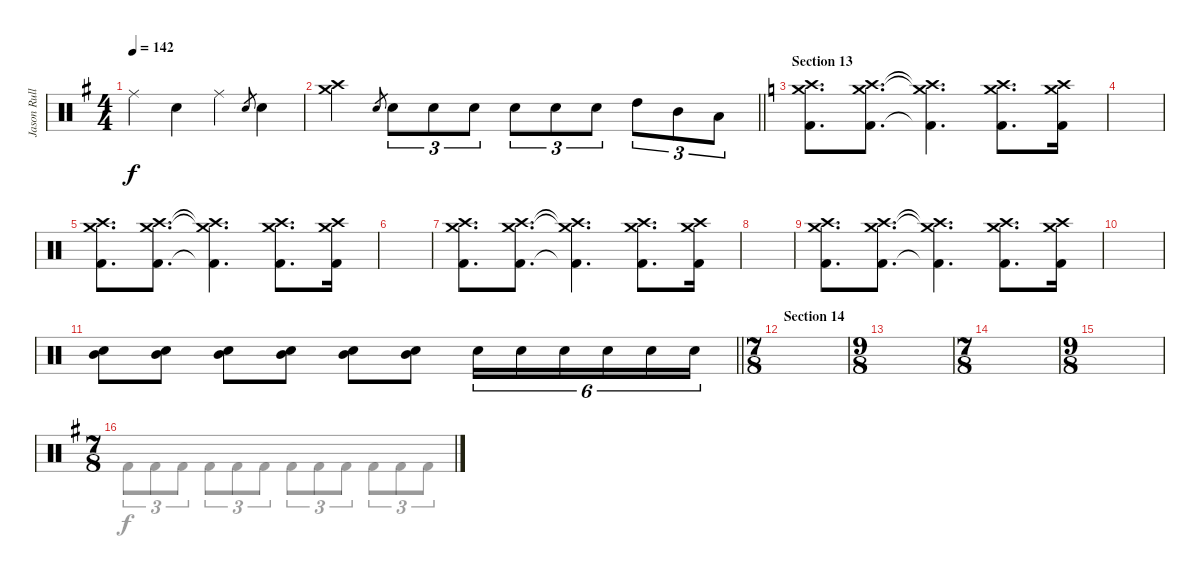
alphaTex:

\track ("Jason Rullo (drums)" "Jason Rull") {instrument percussion}
\staff {score}
\articulation defaults
\voice
\ts (4 4)
\tempo 142
\clef neutral
\ks eminor "Ride (middle)".4{dy f} "Electric Snare (hit)".4 "Ride (middle)".4 "Electric Snare (hit)".8{gr} "Electric Snare (hit)".4
|
\barLineRight lightlight
("Crash medium (hit)" "Crash high (hit)").4 "Electric Snare (hit)".8{gr} "Electric Snare (hit)".8{tu (3 2)} "Electric Snare (hit)".8{tu (3 2)} "Electric Snare (hit)".8{tu (3 2)} "Electric Snare (hit)".8{tu (3 2)} "Electric Snare (hit)".8{tu (3 2)} "Electric Snare (hit)".8{tu (3 2)} "High Tom (hit)".8{tu (3 2)} "Mid Tom (hit)".8{tu (3 2)} "Low Tom (hit)".8{tu (3 2)} |
\section ("" "Section 13")
\ks aminor
("Crash high (hit)" "Kick (hit) 2" "Crash medium (hit)").8{d} ("Crash high (hit)" "Kick (hit) 2" "Crash medium (hit)").8{d} ("Crash high (hit)"{t} "Kick (hit) 2"{t} "Crash medium (hit)"{t}).4{d} ("Crash high (hit)" "Kick (hit) 2" "Crash medium (hit)").8{d} ("Crash high (hit)" "Kick (hit) 2" "Crash medium (hit)").16 |
|
("Crash high (hit)" "Kick (hit) 2" "Crash medium (hit)").8{d} ("Crash high (hit)" "Kick (hit) 2" "Crash medium (hit)").8{d} ("Crash high (hit)"{t} "Kick (hit) 2"{t} "Crash medium (hit)"{t}).4{d} ("Crash high (hit)" "Kick (hit) 2" "Crash medium (hit)").8{d} ("Crash high (hit)" "Kick (hit) 2" "Crash medium (hit)").16 |
|
("Crash high (hit)" "Kick (hit) 2" "Crash medium (hit)").8{d} ("Crash high (hit)" "Kick (hit) 2" "Crash medium (hit)").8{d} ("Crash high (hit)"{t} "Kick (hit) 2"{t} "Crash medium (hit)"{t}).4{d} ("Crash high (hit)" "Kick (hit) 2" "Crash medium (hit)").8{d} ("Crash high (hit)" "Kick (hit) 2" "Crash medium (hit)").16 |
|
("Crash high (hit)" "Kick (hit) 2" "Crash medium (hit)").8{d} ("Crash high (hit)" "Kick (hit) 2" "Crash medium (hit)").8{d} ("Crash high (hit)"{t} "Kick (hit) 2"{t} "Crash medium (hit)"{t}).4{d} ("Crash high (hit)" "Kick (hit) 2" "Crash medium (hit)").8{d} ("Crash high (hit)" "Kick (hit) 2" "Crash medium (hit)").16 |
|
\barLineRight lightlight
("Mid Tom (hit)" "Electric Snare (hit)").8 ("Mid Tom (hit)" "Electric Snare (hit)").8 ("Mid Tom (hit)" "Electric Snare (hit)").8 ("Mid Tom (hit)" "Electric Snare (hit)").8 ("Mid Tom (hit)" "Electric Snare (hit)").8 ("Mid Tom (hit)" "Electric Snare (hit)").8 "Electric Snare (hit)".16{tu (6 4)} "Electric Snare (hit)".16{tu (6 4)} "Electric Snare (hit)".16{tu (6 4)} "Electric Snare (hit)".16{tu (6 4)} "Electric Snare (hit)".16{tu (6 4)} "Electric Snare (hit)".16{tu (6 4)} |
\ts (7 8)
\section ("" "Section 14")
|
\ts (9 8)
|
\ts (7 8)
|
\ts (9 8)
|
\ts (7 8)
\voice
\clef neutral
\ottava regular
\simile none
\ks eminor "Kick (hit) 2".8{tu (3 2) dy f} "Kick (hit) 2".8{tu (3 2)} "Kick (hit) 2".8{tu (3 2)} "Kick (hit) 2".8{tu (3 2)} "Kick (hit) 2".8{tu (3 2)} "Kick (hit) 2".8{tu (3 2)} "Kick (hit) 2".8{tu (3 2)} "Kick (hit) 2".8{tu (3 2)} "Kick (hit) 2".8{tu (3 2)} "Kick (hit) 2".8{tu (3 2)} "Kick (hit) 2".8{tu (3 2)} "Kick (hit) 2".8{tu (3 2)}
|
\barLineRight lightlight
|
\ks aminor
|
|
|
|
|
|
|
|
\barLineRight lightlight
|
|
|
|
|
